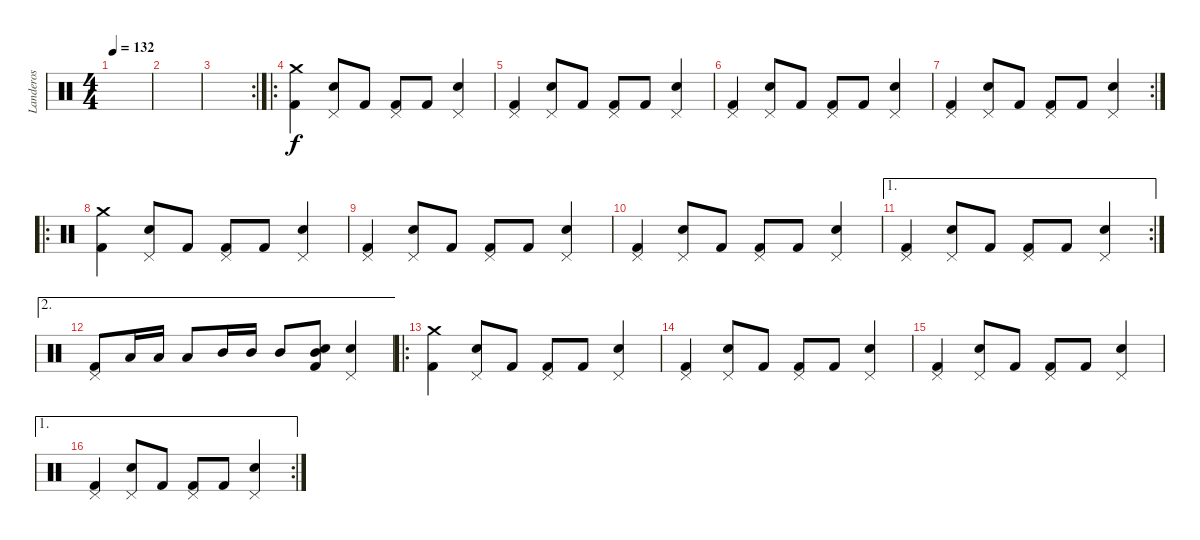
\track ("Landeros" "Landeros") {instrument percussion}
\staff {score}
\articulation defaults
\ts (4 4)
\tempo 132
\clef neutral
\ks c
|
|
\rc 2
|
\ro
("Kick (hit) 2" "Crash medium (hit)").4 ("Electric Snare (hit)" "Pedal Hi-Hat (hit)").8 "Kick (hit) 2".8 ("Kick (hit) 2" "Pedal Hi-Hat (hit)").8 "Kick (hit) 2".8 ("Electric Snare (hit)" "Pedal Hi-Hat (hit)").4 |
("Kick (hit) 2" "Pedal Hi-Hat (hit)").4 ("Electric Snare (hit)" "Pedal Hi-Hat (hit)").8 "Kick (hit) 2".8 ("Kick (hit) 2" "Pedal Hi-Hat (hit)").8 "Kick (hit) 2".8 ("Electric Snare (hit)" "Pedal Hi-Hat (hit)").4 |
("Kick (hit) 2" "Pedal Hi-Hat (hit)").4 ("Electric Snare (hit)" "Pedal Hi-Hat (hit)").8 "Kick (hit) 2".8 ("Kick (hit) 2" "Pedal Hi-Hat (hit)").8 "Kick (hit) 2".8 ("Electric Snare (hit)" "Pedal Hi-Hat (hit)").4 |
\rc 2
("Kick (hit) 2" "Pedal Hi-Hat (hit)").4 ("Electric Snare (hit)" "Pedal Hi-Hat (hit)").8 "Kick (hit) 2".8 ("Kick (hit) 2" "Pedal Hi-Hat (hit)").8 "Kick (hit) 2".8 ("Electric Snare (hit)" "Pedal Hi-Hat (hit)").4 |
\ro
("Kick (hit) 2" "Crash medium (hit)").4 ("Electric Snare (hit)" "Pedal Hi-Hat (hit)").8 "Kick (hit) 2".8 ("Kick (hit) 2" "Pedal Hi-Hat (hit)").8 "Kick (hit) 2".8 ("Electric Snare (hit)" "Pedal Hi-Hat (hit)").4 |
("Kick (hit) 2" "Pedal Hi-Hat (hit)").4 ("Electric Snare (hit)" "Pedal Hi-Hat (hit)").8 "Kick (hit) 2".8 ("Kick (hit) 2" "Pedal Hi-Hat (hit)").8 "Kick (hit) 2".8 ("Electric Snare (hit)" "Pedal Hi-Hat (hit)").4 |
("Kick (hit) 2" "Pedal Hi-Hat (hit)").4 ("Electric Snare (hit)" "Pedal Hi-Hat (hit)").8 "Kick (hit) 2".8 ("Kick (hit) 2" "Pedal Hi-Hat (hit)").8 "Kick (hit) 2".8 ("Electric Snare (hit)" "Pedal Hi-Hat (hit)").4 |
\ae 1
\rc 2
("Kick (hit) 2" "Pedal Hi-Hat (hit)").4 ("Electric Snare (hit)" "Pedal Hi-Hat (hit)").8 "Kick (hit) 2".8 ("Kick (hit) 2" "Pedal Hi-Hat (hit)").8 "Kick (hit) 2".8 ("Electric Snare (hit)" "Pedal Hi-Hat (hit)").4 |
\ae 2
("Kick (hit) 2" "Pedal Hi-Hat (hit)").8 "Low Tom (hit)".16 "Low Tom (hit)".16 "Low Tom (hit)".8 "Mid Tom (hit)".16 "Mid Tom (hit)".16 "Mid Tom (hit)".8 ("Kick (hit) 2" "Electric Snare (hit)" "Mid Tom (hit)").8 ("Electric Snare (hit)" "Pedal Hi-Hat (hit)").4 |
\ro
("Kick (hit) 2" "Crash medium (hit)").4 ("Electric Snare (hit)" "Pedal Hi-Hat (hit)").8 "Kick (hit) 2".8 ("Kick (hit) 2" "Pedal Hi-Hat (hit)").8 "Kick (hit) 2".8 ("Electric Snare (hit)" "Pedal Hi-Hat (hit)").4 |
("Kick (hit) 2" "Pedal Hi-Hat (hit)").4 ("Electric Snare (hit)" "Pedal Hi-Hat (hit)").8 "Kick (hit) 2".8 ("Kick (hit) 2" "Pedal Hi-Hat (hit)").8 "Kick (hit) 2".8 ("Electric Snare (hit)" "Pedal Hi-Hat (hit)").4 |
("Kick (hit) 2" "Pedal Hi-Hat (hit)").4 ("Electric Snare (hit)" "Pedal Hi-Hat (hit)").8 "Kick (hit) 2".8 ("Kick (hit) 2" "Pedal Hi-Hat (hit)").8 "Kick (hit) 2".8 ("Electric Snare (hit)" "Pedal Hi-Hat (hit)").4 |
\ae 1
\rc 2
("Kick (hit) 2" "Pedal Hi-Hat (hit)").4 ("Electric Snare (hit)" "Pedal Hi-Hat (hit)").8 "Kick (hit) 2".8 ("Kick (hit) 2" "Pedal Hi-Hat (hit)").8 "Kick (hit) 2".8 ("Electric Snare (hit)" "Pedal Hi-Hat (hit)").4
